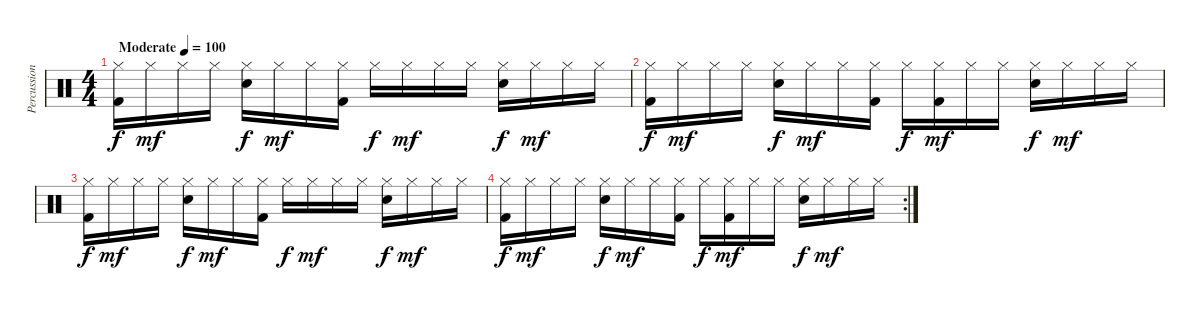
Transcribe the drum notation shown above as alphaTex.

\track ("Percussion" "Percussion") {instrument percussion}
\staff {score}
\articulation defaults
\ts (4 4)
\tempo (100 "Moderate")
\clef neutral
\ks c
("Hi-Hat (closed)" "Kick (hit) 2").16{dy f} "Hi-Hat (closed)".16{dy mf} "Hi-Hat (closed)".16 "Hi-Hat (closed)".16 ("Hi-Hat (closed)" "Electric Snare (hit)").16{dy f} "Hi-Hat (closed)".16{dy mf} "Hi-Hat (closed)".16 ("Hi-Hat (closed)" "Kick (hit) 2").16 "Hi-Hat (closed)".16{dy f} "Hi-Hat (closed)".16{dy mf} "Hi-Hat (closed)".16 "Hi-Hat (closed)".16 ("Hi-Hat (closed)" "Electric Snare (hit)").16{dy f} "Hi-Hat (closed)".16{dy mf} "Hi-Hat (closed)".16 "Hi-Hat (closed)".16 |
("Hi-Hat (closed)" "Kick (hit) 2").16{dy f} "Hi-Hat (closed)".16{dy mf} "Hi-Hat (closed)".16 "Hi-Hat (closed)".16 ("Hi-Hat (closed)" "Electric Snare (hit)").16{dy f} "Hi-Hat (closed)".16{dy mf} "Hi-Hat (closed)".16 ("Hi-Hat (closed)" "Kick (hit) 2").16 "Hi-Hat (closed)".16{dy f} ("Hi-Hat (closed)" "Kick (hit) 2").16{dy mf} "Hi-Hat (closed)".16 "Hi-Hat (closed)".16 ("Hi-Hat (closed)" "Electric Snare (hit)").16{dy f} "Hi-Hat (closed)".16{dy mf} "Hi-Hat (closed)".16 "Hi-Hat (closed)".16 |
("Hi-Hat (closed)" "Kick (hit) 2").16{dy f} "Hi-Hat (closed)".16{dy mf} "Hi-Hat (closed)".16 "Hi-Hat (closed)".16 ("Hi-Hat (closed)" "Electric Snare (hit)").16{dy f} "Hi-Hat (closed)".16{dy mf} "Hi-Hat (closed)".16 ("Hi-Hat (closed)" "Kick (hit) 2").16 "Hi-Hat (closed)".16{dy f} "Hi-Hat (closed)".16{dy mf} "Hi-Hat (closed)".16 "Hi-Hat (closed)".16 ("Hi-Hat (closed)" "Electric Snare (hit)").16{dy f} "Hi-Hat (closed)".16{dy mf} "Hi-Hat (closed)".16 "Hi-Hat (closed)".16 |
\rc 2
("Hi-Hat (closed)" "Kick (hit) 2").16{dy f} "Hi-Hat (closed)".16{dy mf} "Hi-Hat (closed)".16 "Hi-Hat (closed)".16 ("Hi-Hat (closed)" "Electric Snare (hit)").16{dy f} "Hi-Hat (closed)".16{dy mf} "Hi-Hat (closed)".16 ("Hi-Hat (closed)" "Kick (hit) 2").16 "Hi-Hat (closed)".16{dy f} ("Hi-Hat (closed)" "Kick (hit) 2").16{dy mf} "Hi-Hat (closed)".16 "Hi-Hat (closed)".16 ("Hi-Hat (closed)" "Electric Snare (hit)").16{dy f} "Hi-Hat (closed)".16{dy mf} "Hi-Hat (closed)".16 "Hi-Hat (closed)".16
